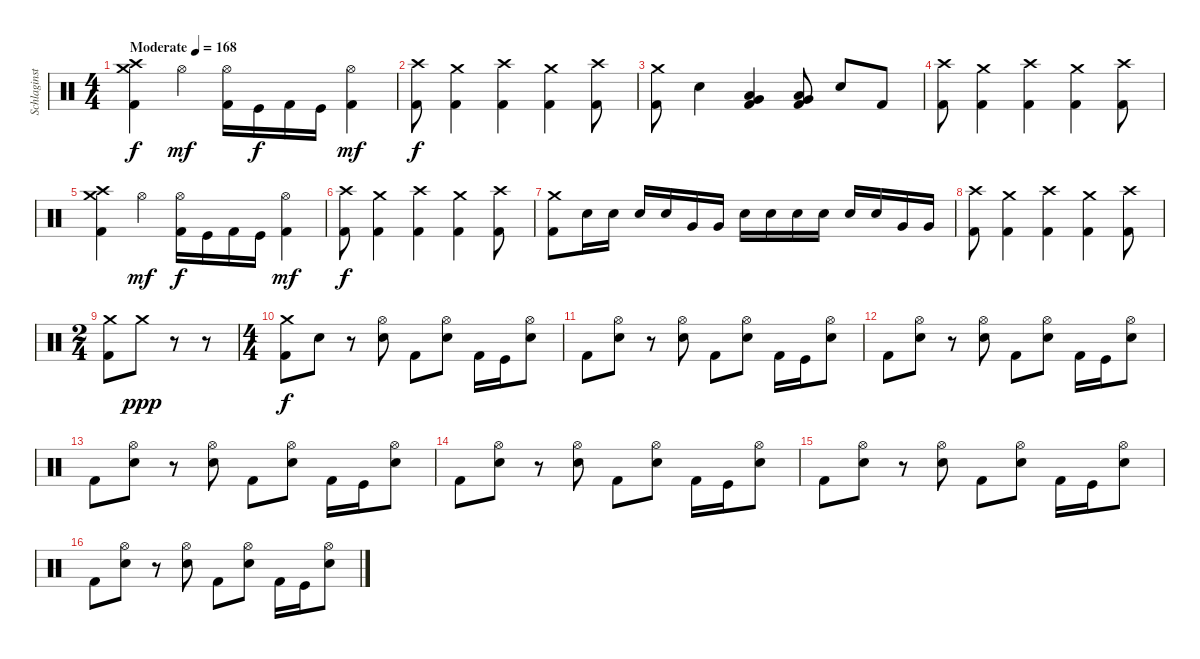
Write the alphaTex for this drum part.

\track ("Schlaginstrumente - Auswahl" "Schlaginst") {instrument percussion}
\staff
\articulation defaults
\ts (4 4)
\tempo (168 "Moderate")
\clef neutral
\ks c
("Crash medium (hit)" "Crash high (hit)" "Kick (hit) 2").4{dy f} "Hi-Hat (open)".4{dy mf} ("Hi-Hat (open)" "Kick (hit) 2").16 "Kick (hit)".16{dy f} "Kick (hit) 2".16 "Kick (hit)".16 ("Hi-Hat (open)" "Kick (hit) 2").4{dy mf} |
("Crash high (hit)" "Kick (hit) 2").8{dy f} ("Crash medium (hit)" "Kick (hit) 2").4 ("Crash high (hit)" "Kick (hit) 2").4 ("Crash medium (hit)" "Kick (hit) 2").4 ("Crash high (hit)" "Kick (hit) 2").8 |
("Crash medium (hit)" "Kick (hit) 2").8 "Electric Snare (hit)".4{bd 60} ("Kick (hit) 2" "Very Low Tom (hit)" "Low Floor Tom (hit)").4{bd 60} ("Kick (hit) 2" "Very Low Tom (hit)" "Low Floor Tom (hit)").8{bd 60} "Electric Snare (hit)".8 "Kick (hit) 2".8 |
("Crash high (hit)" "Kick (hit) 2").8 ("Crash medium (hit)" "Kick (hit) 2").4 ("Crash high (hit)" "Kick (hit) 2").4 ("Crash medium (hit)" "Kick (hit) 2").4 ("Crash high (hit)" "Kick (hit) 2").8 |
("Crash medium (hit)" "Crash high (hit)" "Kick (hit) 2").4 "Hi-Hat (open)".4{dy mf} ("Hi-Hat (open)" "Kick (hit) 2").16{dy f} "Kick (hit)".16 "Kick (hit) 2".16 "Kick (hit)".16 ("Hi-Hat (open)" "Kick (hit) 2").4{dy mf} |
("Crash high (hit)" "Kick (hit) 2").8{dy f} ("Crash medium (hit)" "Kick (hit) 2").4 ("Crash high (hit)" "Kick (hit) 2").4 ("Crash medium (hit)" "Kick (hit) 2").4 ("Crash high (hit)" "Kick (hit) 2").8 |
("Crash medium (hit)" "Kick (hit) 2").8 "Electric Snare (hit)".16 "Electric Snare (hit)".16 "Electric Snare (hit)".16 "Electric Snare (hit)".16 "Very Low Tom (hit)".16 "Very Low Tom (hit)".16 "Electric Snare (hit)".16 "Electric Snare (hit)".16 "Electric Snare (hit)".16 "Electric Snare (hit)".16 "Electric Snare (hit)".16 "Electric Snare (hit)".16 "Very Low Tom (hit)".16 "Very Low Tom (hit)".16 |
("Crash high (hit)" "Kick (hit) 2").8 ("Crash medium (hit)" "Kick (hit) 2").4 ("Crash high (hit)" "Kick (hit) 2").4 ("Crash medium (hit)" "Kick (hit) 2").4 ("Crash high (hit)" "Kick (hit) 2").8 |
\ts (2 4)
("Crash medium (hit)" "Kick (hit) 2").8 "Crash medium (hit)".8{dy ppp} r.8 r.8 |
\ts (4 4)
("Crash medium (hit)" "Kick (hit) 2").8{dy f} "Electric Snare (hit)".8 r.8 ("Hi-Hat (open)" "Electric Snare (hit)").8 "Kick (hit) 2".8 ("Hi-Hat (open)" "Electric Snare (hit)").8 "Kick (hit) 2".16 "Kick (hit)".16 ("Hi-Hat (open)" "Electric Snare (hit)").8 |
"Kick (hit) 2".8 ("Hi-Hat (open)" "Electric Snare (hit)").8 r.8 ("Hi-Hat (open)" "Electric Snare (hit)").8 "Kick (hit) 2".8 ("Hi-Hat (open)" "Electric Snare (hit)").8 "Kick (hit) 2".16 "Kick (hit)".16 ("Hi-Hat (open)" "Electric Snare (hit)").8 |
"Kick (hit) 2".8 ("Hi-Hat (open)" "Electric Snare (hit)").8 r.8 ("Hi-Hat (open)" "Electric Snare (hit)").8 "Kick (hit) 2".8 ("Hi-Hat (open)" "Electric Snare (hit)").8 "Kick (hit) 2".16 "Kick (hit)".16 ("Hi-Hat (open)" "Electric Snare (hit)").8 |
"Kick (hit) 2".8 ("Hi-Hat (open)" "Electric Snare (hit)").8 r.8 ("Hi-Hat (open)" "Electric Snare (hit)").8 "Kick (hit) 2".8 ("Hi-Hat (open)" "Electric Snare (hit)").8 "Kick (hit) 2".16 "Kick (hit)".16 ("Hi-Hat (open)" "Electric Snare (hit)").8 |
"Kick (hit) 2".8 ("Hi-Hat (open)" "Electric Snare (hit)").8 r.8 ("Hi-Hat (open)" "Electric Snare (hit)").8 "Kick (hit) 2".8 ("Hi-Hat (open)" "Electric Snare (hit)").8 "Kick (hit) 2".16 "Kick (hit)".16 ("Hi-Hat (open)" "Electric Snare (hit)").8 |
"Kick (hit) 2".8 ("Hi-Hat (open)" "Electric Snare (hit)").8 r.8 ("Hi-Hat (open)" "Electric Snare (hit)").8 "Kick (hit) 2".8 ("Hi-Hat (open)" "Electric Snare (hit)").8 "Kick (hit) 2".16 "Kick (hit)".16 ("Hi-Hat (open)" "Electric Snare (hit)").8 |
"Kick (hit) 2".8 ("Hi-Hat (open)" "Electric Snare (hit)").8 r.8 ("Hi-Hat (open)" "Electric Snare (hit)").8 "Kick (hit) 2".8 ("Hi-Hat (open)" "Electric Snare (hit)").8 "Kick (hit) 2".16 "Kick (hit)".16 ("Hi-Hat (open)" "Electric Snare (hit)").8
